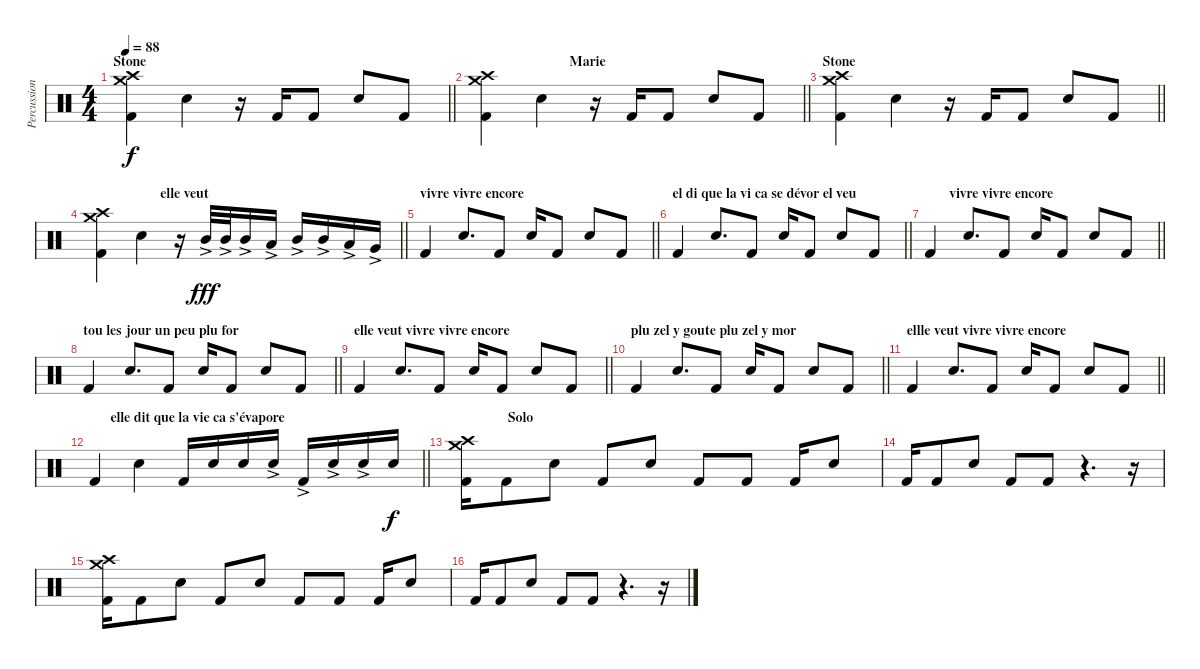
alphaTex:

\track ("Percussions" "Percussion") {instrument percussion}
\staff {score}
\articulation defaults
\ts (4 4)
\section ("" "Stone")
\tempo 88
\clef neutral
\barLineRight lightlight
\ks c
("Crash medium (hit)" "Crash high (hit)" "Kick (hit) 2").4{dy f} "Snare (hit) 2".4 r.16 "Kick (hit) 2".16 "Kick (hit) 2".8 "Snare (hit) 2".8 "Kick (hit) 2".8 |
\section ("" "                             Marie")
\barLineRight lightlight
("Crash medium (hit)" "Crash high (hit)" "Kick (hit) 2").4 "Snare (hit) 2".4 r.16 "Kick (hit) 2".16 "Kick (hit) 2".8 "Snare (hit) 2".8 "Kick (hit) 2".8 |
\section ("" "Stone")
\barLineRight lightlight
("Crash medium (hit)" "Crash high (hit)" "Kick (hit) 2").4 "Snare (hit) 2".4 r.16 "Kick (hit) 2".16 "Kick (hit) 2".8 "Snare (hit) 2".8 "Kick (hit) 2".8 |
\section ("" "                      elle veut ")
\barLineRight lightlight
("Crash medium (hit)" "Crash high (hit)" "Kick (hit) 2").4 "Snare (hit) 2".4 r.16 "Mid Tom (hit)"{ac}.32{dy fff} "Mid Tom (hit)"{ac}.32 "Mid Tom (hit)"{ac}.16 "Low Tom (hit)"{ac}.16 "Mid Tom (hit)"{ac}.16 "Mid Tom (hit)"{ac}.16 "Low Tom (hit)"{ac}.16 "Very Low Tom (hit)"{ac}.16 |
\section ("" "vivre vivre encore")
\barLineRight lightlight "Kick (hit) 2".4 "Snare (hit) 2".8{d} "Kick (hit) 2".8 "Snare (hit) 2".16 "Kick (hit) 2".8 "Snare (hit) 2".8 "Kick (hit) 2".8
|
\section ("" "el di que la vi ca se dévor el veu")
\barLineRight lightlight "Kick (hit) 2".4 "Snare (hit) 2".8{d} "Kick (hit) 2".8 "Snare (hit) 2".16 "Kick (hit) 2".8 "Snare (hit) 2".8 "Kick (hit) 2".8
|
\section ("" "       vivre vivre encore")
\barLineRight lightlight "Kick (hit) 2".4 "Snare (hit) 2".8{d} "Kick (hit) 2".8 "Snare (hit) 2".16 "Kick (hit) 2".8 "Snare (hit) 2".8 "Kick (hit) 2".8
|
\section ("" "tou les jour un peu plu for")
\barLineRight lightlight "Kick (hit) 2".4 "Snare (hit) 2".8{d} "Kick (hit) 2".8 "Snare (hit) 2".16 "Kick (hit) 2".8 "Snare (hit) 2".8 "Kick (hit) 2".8
|
\section ("" "elle veut vivre vivre encore")
\barLineRight lightlight "Kick (hit) 2".4 "Snare (hit) 2".8{d} "Kick (hit) 2".8 "Snare (hit) 2".16 "Kick (hit) 2".8 "Snare (hit) 2".8 "Kick (hit) 2".8
|
\section ("" "plu zel y goute plu zel y mor")
\barLineRight lightlight "Kick (hit) 2".4 "Snare (hit) 2".8{d} "Kick (hit) 2".8 "Snare (hit) 2".16 "Kick (hit) 2".8 "Snare (hit) 2".8 "Kick (hit) 2".8
|
\section ("" "ellle veut vivre vivre encore")
\barLineRight lightlight "Kick (hit) 2".4 "Snare (hit) 2".8{d} "Kick (hit) 2".8 "Snare (hit) 2".16 "Kick (hit) 2".8 "Snare (hit) 2".8 "Kick (hit) 2".8
|
\section ("" "      elle dit que la vie ca s'évapore")
\barLineRight lightlight "Kick (hit) 2".4 "Snare (hit) 2".4 "Kick (hit) 2".16 "Snare (hit) 2".16 "Snare (hit) 2".16 "Snare (hit) 2"{ac}.16 "Kick (hit) 2"{ac}.16 "Snare (hit) 2"{ac}.16 "Snare (hit) 2"{ac}.16 "Snare (hit) 2".16{dy f}
|
\section ("" "                 Solo")
("Crash medium (hit)" "Crash high (hit)" "Kick (hit) 2").16 "Kick (hit) 2".8 "Snare (hit) 2".8 "Kick (hit) 2".8 "Snare (hit) 2".8 "Kick (hit) 2".8 "Kick (hit) 2".8 "Kick (hit) 2".16 "Snare (hit) 2".8 |
"Kick (hit) 2".16 "Kick (hit) 2".8 "Snare (hit) 2".8 "Kick (hit) 2".8 "Kick (hit) 2".8 r.4{d} r.16 |
("Crash medium (hit)" "Crash high (hit)" "Kick (hit) 2").16 "Kick (hit) 2".8 "Snare (hit) 2".8 "Kick (hit) 2".8 "Snare (hit) 2".8 "Kick (hit) 2".8 "Kick (hit) 2".8 "Kick (hit) 2".16 "Snare (hit) 2".8 |
"Kick (hit) 2".16 "Kick (hit) 2".8 "Snare (hit) 2".8 "Kick (hit) 2".8 "Kick (hit) 2".8 r.4{d} r.16
